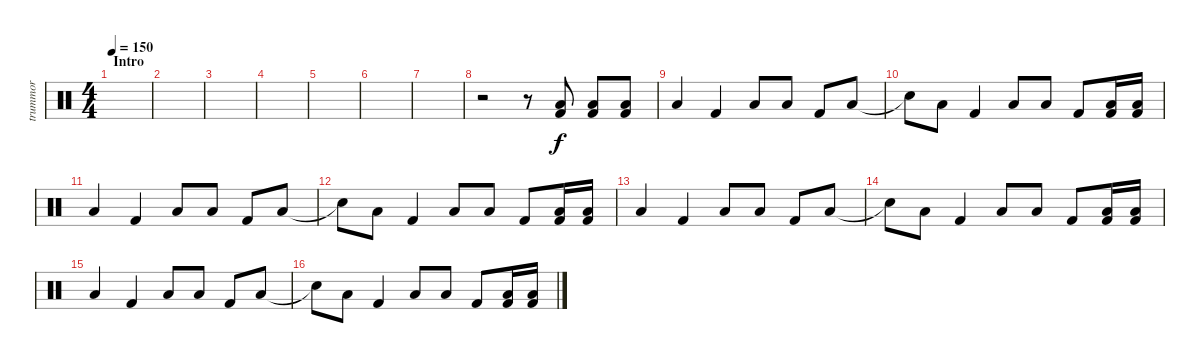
\track ("trummor" "trummor") {instrument percussion}
\staff {score}
\articulation defaults
\ts (4 4)
\section ("" "Intro")
\tempo 150
\clef neutral
\ks c
|
|
|
|
|
|
|
r.2 r.8 ("Low Floor Tom (hit)" "Kick (hit) 2").8 ("Low Floor Tom (hit)" "Kick (hit) 2").8 ("Low Floor Tom (hit)" "Kick (hit) 2").8 |
"Low Floor Tom (hit)".4 "Kick (hit) 2".4 "Low Floor Tom (hit)".8 "Low Floor Tom (hit)".8 "Kick (hit) 2".8 "Low Floor Tom (hit)".8 |
"Snare (hit)"{t}.8 "Low Floor Tom (hit)".8 "Kick (hit) 2".4 "Low Floor Tom (hit)".8 "Low Floor Tom (hit)".8 "Kick (hit) 2".8 ("Kick (hit) 2" "Low Floor Tom (hit)").16 ("Kick (hit) 2" "Low Floor Tom (hit)").16 |
"Low Floor Tom (hit)".4 "Kick (hit) 2".4 "Low Floor Tom (hit)".8 "Low Floor Tom (hit)".8 "Kick (hit) 2".8 "Low Floor Tom (hit)".8 |
"Snare (hit)"{t}.8 "Low Floor Tom (hit)".8 "Kick (hit) 2".4 "Low Floor Tom (hit)".8 "Low Floor Tom (hit)".8 "Kick (hit) 2".8 ("Kick (hit) 2" "Low Floor Tom (hit)").16 ("Kick (hit) 2" "Low Floor Tom (hit)").16 |
"Low Floor Tom (hit)".4 "Kick (hit) 2".4 "Low Floor Tom (hit)".8 "Low Floor Tom (hit)".8 "Kick (hit) 2".8 "Low Floor Tom (hit)".8 |
"Snare (hit)"{t}.8 "Low Floor Tom (hit)".8 "Kick (hit) 2".4 "Low Floor Tom (hit)".8 "Low Floor Tom (hit)".8 "Kick (hit) 2".8 ("Kick (hit) 2" "Low Floor Tom (hit)").16 ("Kick (hit) 2" "Low Floor Tom (hit)").16 |
"Low Floor Tom (hit)".4 "Kick (hit) 2".4 "Low Floor Tom (hit)".8 "Low Floor Tom (hit)".8 "Kick (hit) 2".8 "Low Floor Tom (hit)".8 |
"Snare (hit)"{t}.8 "Low Floor Tom (hit)".8 "Kick (hit) 2".4 "Low Floor Tom (hit)".8 "Low Floor Tom (hit)".8 "Kick (hit) 2".8 ("Kick (hit) 2" "Low Floor Tom (hit)").16 ("Kick (hit) 2" "Low Floor Tom (hit)").16
